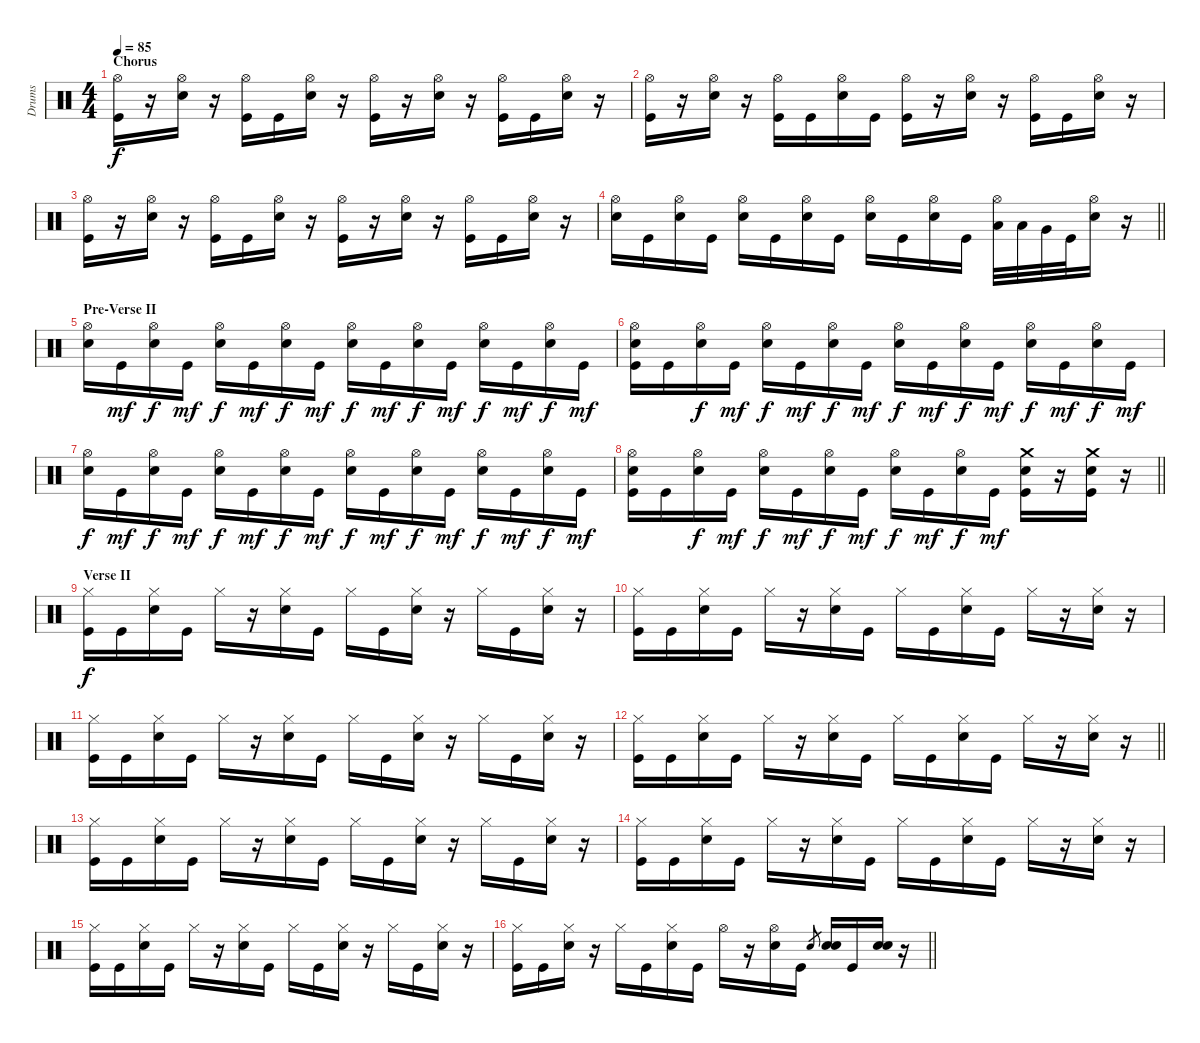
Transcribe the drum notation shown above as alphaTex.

\track ("Drums" "Drums") {instrument percussion}
\staff {score}
\articulation defaults
\ts (4 4)
\section ("" "Chorus ")
\tempo 85
\clef neutral
\ks c
("Hi-Hat (open)" "Kick (hit)").16{dy f} r.16 ("Hi-Hat (open)" "Electric Snare (hit)").16 r.16 ("Hi-Hat (open)" "Kick (hit)").16 "Kick (hit)".16 ("Hi-Hat (open)" "Electric Snare (hit)").16 r.16 ("Hi-Hat (open)" "Kick (hit)").16 r.16 ("Hi-Hat (open)" "Electric Snare (hit)").16 r.16 ("Hi-Hat (open)" "Kick (hit)").16 "Kick (hit)".16 ("Hi-Hat (open)" "Electric Snare (hit)").16 r.16 |
("Hi-Hat (open)" "Kick (hit)").16 r.16 ("Hi-Hat (open)" "Electric Snare (hit)").16 r.16 ("Hi-Hat (open)" "Kick (hit)").16 "Kick (hit)".16 ("Hi-Hat (open)" "Electric Snare (hit)").16 "Kick (hit)".16 ("Hi-Hat (open)" "Kick (hit)").16 r.16 ("Hi-Hat (open)" "Electric Snare (hit)").16 r.16 ("Hi-Hat (open)" "Kick (hit)").16 "Kick (hit)".16 ("Hi-Hat (open)" "Electric Snare (hit)").16 r.16 |
("Hi-Hat (open)" "Kick (hit)").16 r.16 ("Hi-Hat (open)" "Electric Snare (hit)").16 r.16 ("Hi-Hat (open)" "Kick (hit)").16 "Kick (hit)".16 ("Hi-Hat (open)" "Electric Snare (hit)").16 r.16 ("Hi-Hat (open)" "Kick (hit)").16 r.16 ("Hi-Hat (open)" "Electric Snare (hit)").16 r.16 ("Hi-Hat (open)" "Kick (hit)").16 "Kick (hit)".16 ("Hi-Hat (open)" "Electric Snare (hit)").16 r.16 |
\barLineRight lightlight
("Hi-Hat (open)" "Electric Snare (hit)").16 "Kick (hit)".16 ("Hi-Hat (open)" "Electric Snare (hit)").16 "Kick (hit)".16 ("Hi-Hat (open)" "Electric Snare (hit)").16 "Kick (hit)".16 ("Hi-Hat (open)" "Electric Snare (hit)").16 "Kick (hit)".16 ("Hi-Hat (open)" "Electric Snare (hit)").16 "Kick (hit)".16 ("Hi-Hat (open)" "Electric Snare (hit)").16 "Kick (hit)".16 ("Hi-Hat (open)" "Low Tom (hit)").32 "Low Tom (hit)".32 "Very Low Tom (hit)".32 "Kick (hit)".32 ("Hi-Hat (open)" "Electric Snare (hit)").16 r.16 |
\section ("" "Pre-Verse II")
("Hi-Hat (open)" "Electric Snare (hit)").16{volume 12} "Kick (hit)".16{dy mf} ("Hi-Hat (open)" "Electric Snare (hit)").16{dy f} "Kick (hit)".16{dy mf} ("Hi-Hat (open)" "Electric Snare (hit)").16{dy f} "Kick (hit)".16{dy mf} ("Hi-Hat (open)" "Electric Snare (hit)").16{dy f} "Kick (hit)".16{dy mf} ("Hi-Hat (open)" "Electric Snare (hit)").16{dy f} "Kick (hit)".16{dy mf} ("Hi-Hat (open)" "Electric Snare (hit)").16{dy f} "Kick (hit)".16{dy mf} ("Hi-Hat (open)" "Electric Snare (hit)").16{dy f} "Kick (hit)".16{dy mf} ("Hi-Hat (open)" "Electric Snare (hit)").16{dy f} "Kick (hit)".16{dy mf} |
("Hi-Hat (open)" "Electric Snare (hit)" "Kick (hit)").16 "Kick (hit)".16 ("Hi-Hat (open)" "Electric Snare (hit)").16{dy f} "Kick (hit)".16{dy mf} ("Hi-Hat (open)" "Electric Snare (hit)").16{dy f} "Kick (hit)".16{dy mf} ("Hi-Hat (open)" "Electric Snare (hit)").16{dy f} "Kick (hit)".16{dy mf} ("Hi-Hat (open)" "Electric Snare (hit)").16{dy f} "Kick (hit)".16{dy mf} ("Hi-Hat (open)" "Electric Snare (hit)").16{dy f} "Kick (hit)".16{dy mf} ("Hi-Hat (open)" "Electric Snare (hit)").16{dy f} "Kick (hit)".16{dy mf} ("Hi-Hat (open)" "Electric Snare (hit)").16{dy f} "Kick (hit)".16{dy mf} |
("Hi-Hat (open)" "Electric Snare (hit)").16{dy f} "Kick (hit)".16{dy mf} ("Hi-Hat (open)" "Electric Snare (hit)").16{dy f} "Kick (hit)".16{dy mf} ("Hi-Hat (open)" "Electric Snare (hit)").16{dy f} "Kick (hit)".16{dy mf} ("Hi-Hat (open)" "Electric Snare (hit)").16{dy f} "Kick (hit)".16{dy mf} ("Hi-Hat (open)" "Electric Snare (hit)").16{dy f} "Kick (hit)".16{dy mf} ("Hi-Hat (open)" "Electric Snare (hit)").16{dy f} "Kick (hit)".16{dy mf} ("Hi-Hat (open)" "Electric Snare (hit)").16{dy f} "Kick (hit)".16{dy mf} ("Hi-Hat (open)" "Electric Snare (hit)").16{dy f} "Kick (hit)".16{dy mf} |
\barLineRight lightlight
("Hi-Hat (open)" "Electric Snare (hit)" "Kick (hit)").16 "Kick (hit)".16 ("Hi-Hat (open)" "Electric Snare (hit)").16{dy f} "Kick (hit)".16{dy mf} ("Hi-Hat (open)" "Electric Snare (hit)").16{dy f} "Kick (hit)".16{dy mf} ("Hi-Hat (open)" "Electric Snare (hit)").16{dy f} "Kick (hit)".16{dy mf} ("Hi-Hat (open)" "Electric Snare (hit)").16{dy f} "Kick (hit)".16{dy mf} ("Hi-Hat (open)" "Electric Snare (hit)").16{dy f} "Kick (hit)".16{dy mf} ("Crash medium (hit)" "Electric Snare (hit)" "Kick (hit)").16 r.16 ("Crash medium (hit)" "Electric Snare (hit)" "Kick (hit)").16 r.16 |
\section ("" "Verse II")
("Hi-Hat (closed)" "Kick (hit)").16{dy f volume 11} "Kick (hit)".16 ("Hi-Hat (closed)" "Electric Snare (hit)").16 "Kick (hit)".16 "Hi-Hat (closed)".16 r.16 ("Hi-Hat (closed)" "Electric Snare (hit)").16 "Kick (hit)".16 "Hi-Hat (closed)".16 "Kick (hit)".16 ("Hi-Hat (closed)" "Electric Snare (hit)").16 r.16 "Hi-Hat (closed)".16 "Kick (hit)".16 ("Hi-Hat (closed)" "Electric Snare (hit)").16 r.16 |
("Hi-Hat (closed)" "Kick (hit)").16 "Kick (hit)".16 ("Hi-Hat (closed)" "Electric Snare (hit)").16 "Kick (hit)".16 "Hi-Hat (closed)".16 r.16 ("Hi-Hat (closed)" "Electric Snare (hit)").16 "Kick (hit)".16 "Hi-Hat (closed)".16 "Kick (hit)".16 ("Hi-Hat (closed)" "Electric Snare (hit)").16 "Kick (hit)".16 "Hi-Hat (closed)".16 r.16 ("Hi-Hat (closed)" "Electric Snare (hit)").16 r.16 |
("Hi-Hat (closed)" "Kick (hit)").16 "Kick (hit)".16 ("Hi-Hat (closed)" "Electric Snare (hit)").16 "Kick (hit)".16 "Hi-Hat (closed)".16 r.16 ("Hi-Hat (closed)" "Electric Snare (hit)").16 "Kick (hit)".16 "Hi-Hat (closed)".16 "Kick (hit)".16 ("Hi-Hat (closed)" "Electric Snare (hit)").16 r.16 "Hi-Hat (closed)".16 "Kick (hit)".16 ("Hi-Hat (closed)" "Electric Snare (hit)").16 r.16 |
\barLineRight lightlight
("Hi-Hat (closed)" "Kick (hit)").16 "Kick (hit)".16 ("Hi-Hat (closed)" "Electric Snare (hit)").16 "Kick (hit)".16 "Hi-Hat (closed)".16 r.16 ("Hi-Hat (closed)" "Electric Snare (hit)").16 "Kick (hit)".16 "Hi-Hat (closed)".16 "Kick (hit)".16 ("Hi-Hat (closed)" "Electric Snare (hit)").16 "Kick (hit)".16 "Hi-Hat (closed)".16 r.16 ("Hi-Hat (closed)" "Electric Snare (hit)").16 r.16 |
("Hi-Hat (closed)" "Kick (hit)").16 "Kick (hit)".16 ("Hi-Hat (closed)" "Electric Snare (hit)").16 "Kick (hit)".16 "Hi-Hat (closed)".16 r.16 ("Hi-Hat (closed)" "Electric Snare (hit)").16 "Kick (hit)".16 "Hi-Hat (closed)".16 "Kick (hit)".16 ("Hi-Hat (closed)" "Electric Snare (hit)").16 r.16 "Hi-Hat (closed)".16 "Kick (hit)".16 ("Hi-Hat (closed)" "Electric Snare (hit)").16 r.16 |
("Hi-Hat (closed)" "Kick (hit)").16 "Kick (hit)".16 ("Hi-Hat (closed)" "Electric Snare (hit)").16 "Kick (hit)".16 "Hi-Hat (closed)".16 r.16 ("Hi-Hat (closed)" "Electric Snare (hit)").16 "Kick (hit)".16 "Hi-Hat (closed)".16 "Kick (hit)".16 ("Hi-Hat (closed)" "Electric Snare (hit)").16 "Kick (hit)".16 "Hi-Hat (closed)".16 r.16 ("Hi-Hat (closed)" "Electric Snare (hit)").16 r.16 |
("Hi-Hat (closed)" "Kick (hit)").16 "Kick (hit)".16 ("Hi-Hat (closed)" "Electric Snare (hit)").16 "Kick (hit)".16 "Hi-Hat (closed)".16 r.16 ("Hi-Hat (closed)" "Electric Snare (hit)").16 "Kick (hit)".16 "Hi-Hat (closed)".16 "Kick (hit)".16 ("Hi-Hat (closed)" "Electric Snare (hit)").16 r.16 "Hi-Hat (closed)".16 "Kick (hit)".16 ("Hi-Hat (closed)" "Electric Snare (hit)").16 r.16 |
\barLineRight lightlight
("Hi-Hat (closed)" "Kick (hit)").16 "Kick (hit)".16 ("Hi-Hat (closed)" "Electric Snare (hit)").16 r.16 "Hi-Hat (closed)".16 "Kick (hit)".16 ("Hi-Hat (closed)" "Electric Snare (hit)").16 "Kick (hit)".16 "Hi-Hat (open)".16 r.16 ("Hi-Hat (open)" "Electric Snare (hit)").16 "Kick (hit)".16 "Electric Snare (hit)".8{gr} ("Electric Snare (hit)" "Electric Snare (hit)").16 "Kick (hit)".16 ("Electric Snare (hit)" "Electric Snare (hit)").16 r.16
